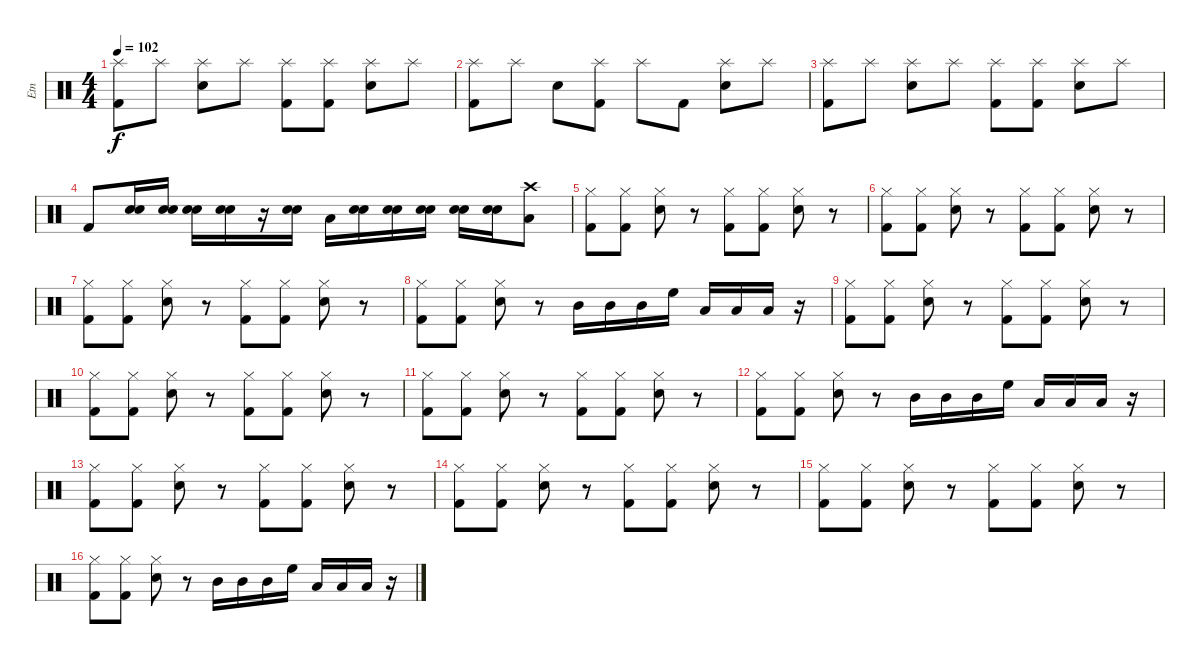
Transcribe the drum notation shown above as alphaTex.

\track ("Etn" "Etn") {instrument percussion}
\staff {score}
\articulation defaults
\ts (4 4)
\tempo 102
\clef neutral
\ks c
("Splash (hit)" "Kick (hit) 2").8{dy f} "Splash (hit)".8 ("Splash (hit)" "Snare (hit) 2").8 "Splash (hit)".8 ("Splash (hit)" "Kick (hit) 2").8 ("Splash (hit)" "Kick (hit) 2").8 ("Splash (hit)" "Snare (hit) 2").8 "Splash (hit)".8 |
("Splash (hit)" "Kick (hit) 2").8 "Splash (hit)".8 "Snare (hit) 2".8 ("Splash (hit)" "Kick (hit) 2").8 "Splash (hit)".8 "Kick (hit) 2".8 ("Splash (hit)" "Snare (hit) 2").8 "Splash (hit)".8 |
("Splash (hit)" "Kick (hit) 2").8 "Splash (hit)".8 ("Splash (hit)" "Snare (hit) 2").8 "Splash (hit)".8 ("Splash (hit)" "Kick (hit) 2").8 ("Splash (hit)" "Kick (hit) 2").8 ("Splash (hit)" "Snare (hit) 2").8 "Splash (hit)".8 |
"Kick (hit) 2".8 ("Snare (hit) 2" "Snare (hit) 2").16 ("Snare (hit) 2" "Snare (hit) 2").16 ("Snare (hit) 2" "Snare (hit) 2").16 ("Snare (hit) 2" "Snare (hit) 2").16 r.16 ("Snare (hit) 2" "Snare (hit) 2").16 "Low Tom (hit)".16 ("Snare (hit) 2" "Snare (hit) 2").16 ("Snare (hit) 2" "Snare (hit) 2").16 ("Snare (hit) 2" "Snare (hit) 2").16 ("Snare (hit) 2" "Snare (hit) 2").16 ("Snare (hit) 2" "Snare (hit) 2").16 ("Crash high (hit)" "Low Tom (hit)").8 |
("Hi-Hat (closed)" "Kick (hit) 2").8 ("Hi-Hat (closed)" "Kick (hit) 2").8 ("Hi-Hat (closed)" "Snare (hit) 2").8 r.8 ("Hi-Hat (closed)" "Kick (hit) 2").8 ("Hi-Hat (closed)" "Kick (hit) 2").8 ("Hi-Hat (closed)" "Snare (hit) 2").8 r.8 |
("Hi-Hat (closed)" "Kick (hit) 2").8 ("Hi-Hat (closed)" "Kick (hit) 2").8 ("Hi-Hat (closed)" "Snare (hit) 2").8 r.8 ("Hi-Hat (closed)" "Kick (hit) 2").8 ("Hi-Hat (closed)" "Kick (hit) 2").8 ("Hi-Hat (closed)" "Snare (hit) 2").8 r.8 |
("Hi-Hat (closed)" "Kick (hit) 2").8 ("Hi-Hat (closed)" "Kick (hit) 2").8 ("Hi-Hat (closed)" "Snare (hit) 2").8 r.8 ("Hi-Hat (closed)" "Kick (hit) 2").8 ("Hi-Hat (closed)" "Kick (hit) 2").8 ("Hi-Hat (closed)" "Snare (hit) 2").8 r.8 |
("Hi-Hat (closed)" "Kick (hit) 2").8 ("Hi-Hat (closed)" "Kick (hit) 2").8 ("Hi-Hat (closed)" "Snare (hit) 2").8 r.8 "Mid Tom (hit)".16 "Mid Tom (hit)".16 "Mid Tom (hit)".16 "High Floor Tom (hit)".16 "Low Tom (hit)".16 "Low Tom (hit)".16 "Low Tom (hit)".16 r.16 |
("Hi-Hat (closed)" "Kick (hit) 2").8 ("Hi-Hat (closed)" "Kick (hit) 2").8 ("Hi-Hat (closed)" "Snare (hit) 2").8 r.8 ("Hi-Hat (closed)" "Kick (hit) 2").8 ("Hi-Hat (closed)" "Kick (hit) 2").8 ("Hi-Hat (closed)" "Snare (hit) 2").8 r.8 |
("Hi-Hat (closed)" "Kick (hit) 2").8 ("Hi-Hat (closed)" "Kick (hit) 2").8 ("Hi-Hat (closed)" "Snare (hit) 2").8 r.8 ("Hi-Hat (closed)" "Kick (hit) 2").8 ("Hi-Hat (closed)" "Kick (hit) 2").8 ("Hi-Hat (closed)" "Snare (hit) 2").8 r.8 |
("Hi-Hat (closed)" "Kick (hit) 2").8 ("Hi-Hat (closed)" "Kick (hit) 2").8 ("Hi-Hat (closed)" "Snare (hit) 2").8 r.8 ("Hi-Hat (closed)" "Kick (hit) 2").8 ("Hi-Hat (closed)" "Kick (hit) 2").8 ("Hi-Hat (closed)" "Snare (hit) 2").8 r.8 |
("Hi-Hat (closed)" "Kick (hit) 2").8 ("Hi-Hat (closed)" "Kick (hit) 2").8 ("Hi-Hat (closed)" "Snare (hit) 2").8 r.8 "Mid Tom (hit)".16 "Mid Tom (hit)".16 "Mid Tom (hit)".16 "High Floor Tom (hit)".16 "Low Tom (hit)".16 "Low Tom (hit)".16 "Low Tom (hit)".16 r.16 |
("Hi-Hat (closed)" "Kick (hit) 2").8 ("Hi-Hat (closed)" "Kick (hit) 2").8 ("Hi-Hat (closed)" "Snare (hit) 2").8 r.8 ("Hi-Hat (closed)" "Kick (hit) 2").8 ("Hi-Hat (closed)" "Kick (hit) 2").8 ("Hi-Hat (closed)" "Snare (hit) 2").8 r.8 |
("Hi-Hat (closed)" "Kick (hit) 2").8 ("Hi-Hat (closed)" "Kick (hit) 2").8 ("Hi-Hat (closed)" "Snare (hit) 2").8 r.8 ("Hi-Hat (closed)" "Kick (hit) 2").8 ("Hi-Hat (closed)" "Kick (hit) 2").8 ("Hi-Hat (closed)" "Snare (hit) 2").8 r.8 |
("Hi-Hat (closed)" "Kick (hit) 2").8 ("Hi-Hat (closed)" "Kick (hit) 2").8 ("Hi-Hat (closed)" "Snare (hit) 2").8 r.8 ("Hi-Hat (closed)" "Kick (hit) 2").8 ("Hi-Hat (closed)" "Kick (hit) 2").8 ("Hi-Hat (closed)" "Snare (hit) 2").8 r.8 |
("Hi-Hat (closed)" "Kick (hit) 2").8 ("Hi-Hat (closed)" "Kick (hit) 2").8 ("Hi-Hat (closed)" "Snare (hit) 2").8 r.8 "Mid Tom (hit)".16 "Mid Tom (hit)".16 "Mid Tom (hit)".16 "High Floor Tom (hit)".16 "Low Tom (hit)".16 "Low Tom (hit)".16 "Low Tom (hit)".16 r.16
